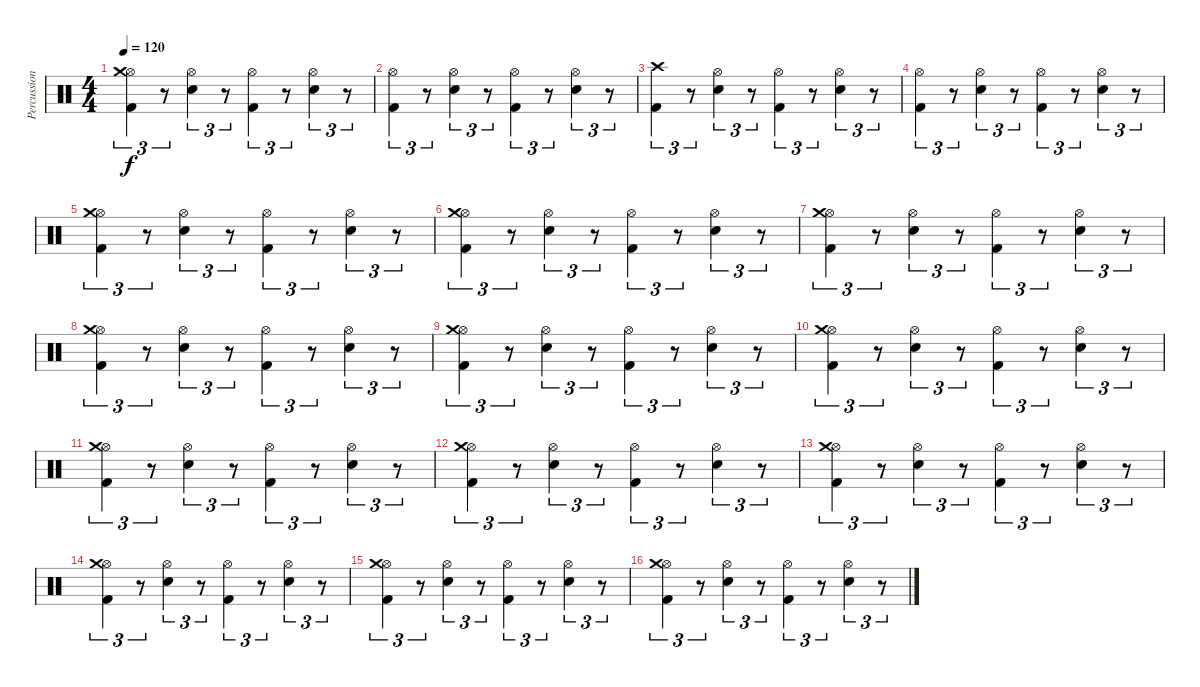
\track ("Percussioni" "Percussion") {instrument percussion}
\staff {score}
\articulation defaults
\ts (4 4)
\tempo 120
\clef neutral
\ks c
("Kick (hit) 2" "Hi-Hat (open)" "Crash medium (hit)").4{tu (3 2) dy f} r.8{tu (3 2)} ("Electric Snare (hit)" "Hi-Hat (open)").4{tu (3 2)} r.8{tu (3 2)} ("Kick (hit) 2" "Hi-Hat (open)").4{tu (3 2)} r.8{tu (3 2)} ("Electric Snare (hit)" "Hi-Hat (open)").4{tu (3 2)} r.8{tu (3 2)} |
("Kick (hit) 2" "Hi-Hat (open)").4{tu (3 2)} r.8{tu (3 2)} ("Electric Snare (hit)" "Hi-Hat (open)").4{tu (3 2)} r.8{tu (3 2)} ("Kick (hit) 2" "Hi-Hat (open)").4{tu (3 2)} r.8{tu (3 2)} ("Electric Snare (hit)" "Hi-Hat (open)").4{tu (3 2)} r.8{tu (3 2)} |
("Kick (hit) 2" "Crash high (hit)").4{tu (3 2)} r.8{tu (3 2)} ("Electric Snare (hit)" "Hi-Hat (open)").4{tu (3 2)} r.8{tu (3 2)} ("Kick (hit) 2" "Hi-Hat (open)").4{tu (3 2)} r.8{tu (3 2)} ("Electric Snare (hit)" "Hi-Hat (open)").4{tu (3 2)} r.8{tu (3 2)} |
("Kick (hit) 2" "Hi-Hat (open)").4{tu (3 2)} r.8{tu (3 2)} ("Electric Snare (hit)" "Hi-Hat (open)").4{tu (3 2)} r.8{tu (3 2)} ("Kick (hit) 2" "Hi-Hat (open)").4{tu (3 2)} r.8{tu (3 2)} ("Electric Snare (hit)" "Hi-Hat (open)").4{tu (3 2)} r.8{tu (3 2)} |
("Kick (hit) 2" "Hi-Hat (open)" "Crash medium (hit)").4{tu (3 2)} r.8{tu (3 2)} ("Electric Snare (hit)" "Hi-Hat (open)").4{tu (3 2)} r.8{tu (3 2)} ("Kick (hit) 2" "Hi-Hat (open)").4{tu (3 2)} r.8{tu (3 2)} ("Electric Snare (hit)" "Hi-Hat (open)").4{tu (3 2)} r.8{tu (3 2)} |
("Kick (hit) 2" "Hi-Hat (open)" "Crash medium (hit)").4{tu (3 2)} r.8{tu (3 2)} ("Electric Snare (hit)" "Hi-Hat (open)").4{tu (3 2)} r.8{tu (3 2)} ("Kick (hit) 2" "Hi-Hat (open)").4{tu (3 2)} r.8{tu (3 2)} ("Electric Snare (hit)" "Hi-Hat (open)").4{tu (3 2)} r.8{tu (3 2)} |
("Kick (hit) 2" "Hi-Hat (open)" "Crash medium (hit)").4{tu (3 2)} r.8{tu (3 2)} ("Electric Snare (hit)" "Hi-Hat (open)").4{tu (3 2)} r.8{tu (3 2)} ("Kick (hit) 2" "Hi-Hat (open)").4{tu (3 2)} r.8{tu (3 2)} ("Electric Snare (hit)" "Hi-Hat (open)").4{tu (3 2)} r.8{tu (3 2)} |
("Kick (hit) 2" "Hi-Hat (open)" "Crash medium (hit)").4{tu (3 2)} r.8{tu (3 2)} ("Electric Snare (hit)" "Hi-Hat (open)").4{tu (3 2)} r.8{tu (3 2)} ("Kick (hit) 2" "Hi-Hat (open)").4{tu (3 2)} r.8{tu (3 2)} ("Electric Snare (hit)" "Hi-Hat (open)").4{tu (3 2)} r.8{tu (3 2)} |
("Kick (hit) 2" "Hi-Hat (open)" "Crash medium (hit)").4{tu (3 2)} r.8{tu (3 2)} ("Electric Snare (hit)" "Hi-Hat (open)").4{tu (3 2)} r.8{tu (3 2)} ("Kick (hit) 2" "Hi-Hat (open)").4{tu (3 2)} r.8{tu (3 2)} ("Electric Snare (hit)" "Hi-Hat (open)").4{tu (3 2)} r.8{tu (3 2)} |
("Kick (hit) 2" "Hi-Hat (open)" "Crash medium (hit)").4{tu (3 2)} r.8{tu (3 2)} ("Electric Snare (hit)" "Hi-Hat (open)").4{tu (3 2)} r.8{tu (3 2)} ("Kick (hit) 2" "Hi-Hat (open)").4{tu (3 2)} r.8{tu (3 2)} ("Electric Snare (hit)" "Hi-Hat (open)").4{tu (3 2)} r.8{tu (3 2)} |
("Kick (hit) 2" "Hi-Hat (open)" "Crash medium (hit)").4{tu (3 2)} r.8{tu (3 2)} ("Electric Snare (hit)" "Hi-Hat (open)").4{tu (3 2)} r.8{tu (3 2)} ("Kick (hit) 2" "Hi-Hat (open)").4{tu (3 2)} r.8{tu (3 2)} ("Electric Snare (hit)" "Hi-Hat (open)").4{tu (3 2)} r.8{tu (3 2)} |
("Kick (hit) 2" "Hi-Hat (open)" "Crash medium (hit)").4{tu (3 2)} r.8{tu (3 2)} ("Electric Snare (hit)" "Hi-Hat (open)").4{tu (3 2)} r.8{tu (3 2)} ("Kick (hit) 2" "Hi-Hat (open)").4{tu (3 2)} r.8{tu (3 2)} ("Electric Snare (hit)" "Hi-Hat (open)").4{tu (3 2)} r.8{tu (3 2)} |
("Kick (hit) 2" "Hi-Hat (open)" "Crash medium (hit)").4{tu (3 2)} r.8{tu (3 2)} ("Electric Snare (hit)" "Hi-Hat (open)").4{tu (3 2)} r.8{tu (3 2)} ("Kick (hit) 2" "Hi-Hat (open)").4{tu (3 2)} r.8{tu (3 2)} ("Electric Snare (hit)" "Hi-Hat (open)").4{tu (3 2)} r.8{tu (3 2)} |
("Kick (hit) 2" "Hi-Hat (open)" "Crash medium (hit)").4{tu (3 2)} r.8{tu (3 2)} ("Electric Snare (hit)" "Hi-Hat (open)").4{tu (3 2)} r.8{tu (3 2)} ("Kick (hit) 2" "Hi-Hat (open)").4{tu (3 2)} r.8{tu (3 2)} ("Electric Snare (hit)" "Hi-Hat (open)").4{tu (3 2)} r.8{tu (3 2)} |
("Kick (hit) 2" "Hi-Hat (open)" "Crash medium (hit)").4{tu (3 2)} r.8{tu (3 2)} ("Electric Snare (hit)" "Hi-Hat (open)").4{tu (3 2)} r.8{tu (3 2)} ("Kick (hit) 2" "Hi-Hat (open)").4{tu (3 2)} r.8{tu (3 2)} ("Electric Snare (hit)" "Hi-Hat (open)").4{tu (3 2)} r.8{tu (3 2)} |
("Kick (hit) 2" "Hi-Hat (open)" "Crash medium (hit)").4{tu (3 2)} r.8{tu (3 2)} ("Electric Snare (hit)" "Hi-Hat (open)").4{tu (3 2)} r.8{tu (3 2)} ("Kick (hit) 2" "Hi-Hat (open)").4{tu (3 2)} r.8{tu (3 2)} ("Electric Snare (hit)" "Hi-Hat (open)").4{tu (3 2)} r.8{tu (3 2)}
